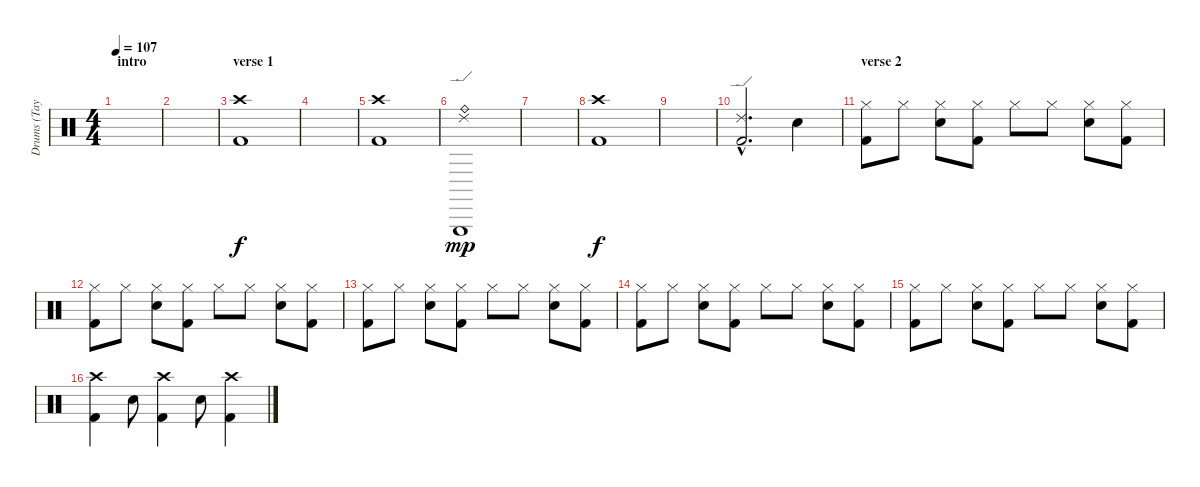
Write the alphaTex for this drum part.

\track ("Drums (Taylor)" "Drums (Tay") {instrument percussion}
\staff {score}
\articulation defaults
\ts (4 4)
\section ("" "intro ")
\tempo 107
\clef neutral
\ks c
|
|
\section ("" "verse 1")
("Crash high (hit)" "Kick (hit) 2").1 |
|
("Crash high (hit)" "Kick (hit) 2").1 |
("Ride (bell)" "Ride (edge) 2" "Triangle (hit)").1{dy mp} |
|
("Crash high (hit)" "Kick (hit) 2").1{dy f} |
|
("Ride (edge) 2"{hac} "Kick (hit) 2"{hac}).2{d} "Electric Snare (hit)".4 |
\section ("" "verse 2")
("Hi-Hat (closed)" "Kick (hit) 2").8 "Hi-Hat (closed)".8 ("Hi-Hat (closed)" "Electric Snare (hit)").8 ("Hi-Hat (closed)" "Kick (hit) 2").8 "Hi-Hat (closed)".8 "Hi-Hat (closed)".8 ("Hi-Hat (closed)" "Electric Snare (hit)").8 ("Hi-Hat (closed)" "Kick (hit) 2").8 |
("Hi-Hat (closed)" "Kick (hit) 2").8 "Hi-Hat (closed)".8 ("Hi-Hat (closed)" "Electric Snare (hit)").8 ("Hi-Hat (closed)" "Kick (hit) 2").8 "Hi-Hat (closed)".8 "Hi-Hat (closed)".8 ("Hi-Hat (closed)" "Electric Snare (hit)").8 ("Hi-Hat (closed)" "Kick (hit) 2").8 |
("Hi-Hat (closed)" "Kick (hit) 2").8 "Hi-Hat (closed)".8 ("Hi-Hat (closed)" "Electric Snare (hit)").8 ("Hi-Hat (closed)" "Kick (hit) 2").8 "Hi-Hat (closed)".8 "Hi-Hat (closed)".8 ("Hi-Hat (closed)" "Electric Snare (hit)").8 ("Hi-Hat (closed)" "Kick (hit) 2").8 |
("Hi-Hat (closed)" "Kick (hit) 2").8 "Hi-Hat (closed)".8 ("Hi-Hat (closed)" "Electric Snare (hit)").8 ("Hi-Hat (closed)" "Kick (hit) 2").8 "Hi-Hat (closed)".8 "Hi-Hat (closed)".8 ("Hi-Hat (closed)" "Electric Snare (hit)").8 ("Hi-Hat (closed)" "Kick (hit) 2").8 |
("Hi-Hat (closed)" "Kick (hit) 2").8 "Hi-Hat (closed)".8 ("Hi-Hat (closed)" "Electric Snare (hit)").8 ("Hi-Hat (closed)" "Kick (hit) 2").8 "Hi-Hat (closed)".8 "Hi-Hat (closed)".8 ("Hi-Hat (closed)" "Electric Snare (hit)").8 ("Hi-Hat (closed)" "Kick (hit) 2").8 |
("Crash high (hit)" "Kick (hit) 2").4 "Electric Snare (hit)".8 ("Crash high (hit)" "Kick (hit) 2").4 "Electric Snare (hit)".8 ("Crash high (hit)" "Kick (hit) 2").4
